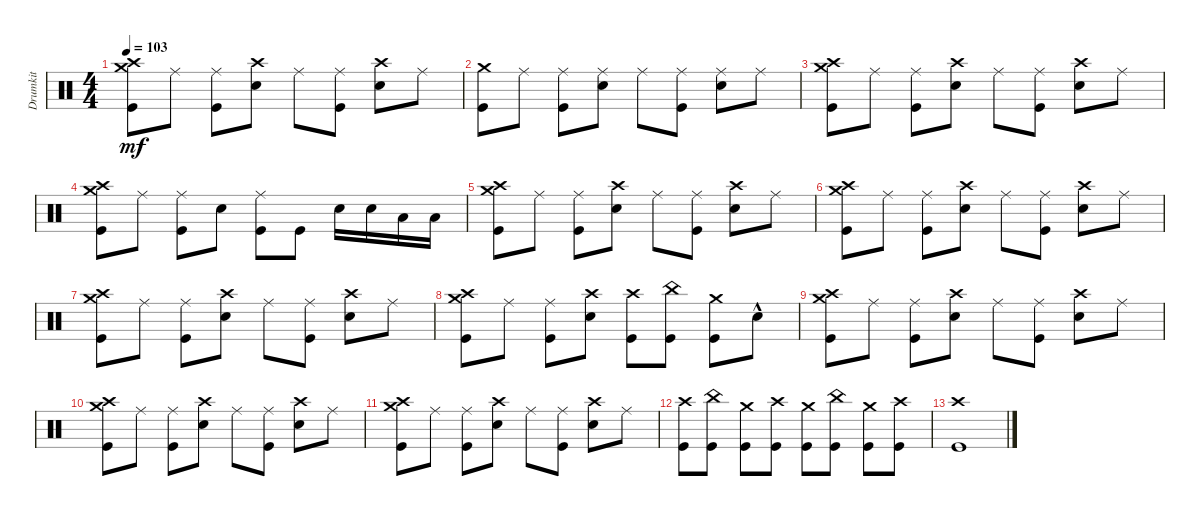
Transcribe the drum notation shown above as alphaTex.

\track ("Drumkit" "Drumkit") {instrument percussion}
\staff {score}
\articulation defaults
\ts (4 4)
\tempo 103
\clef neutral
\ks c
("Crash high (hit)" "Crash medium (hit)" "Kick (hit)").8{dy mf} "Ride (middle)".8 ("Ride (middle)" "Kick (hit)").8 ("Snare (hit) 2" "Crash high (hit)").8 "Ride (middle)".8 ("Ride (middle)" "Kick (hit)").8 ("Snare (hit) 2" "Crash high (hit)").8 "Ride (middle)".8 |
("Crash medium (hit)" "Kick (hit)").8 "Ride (middle)".8 ("Ride (middle)" "Kick (hit)").8 ("Snare (hit) 2" "Ride (middle)").8 "Ride (middle)".8 ("Ride (middle)" "Kick (hit)").8 ("Snare (hit) 2" "Ride (middle)").8 "Ride (middle)".8 |
("Crash high (hit)" "Crash medium (hit)" "Kick (hit)").8 "Ride (middle)".8 ("Ride (middle)" "Kick (hit)").8 ("Snare (hit) 2" "Crash high (hit)").8 "Ride (middle)".8 ("Ride (middle)" "Kick (hit)").8 ("Snare (hit) 2" "Crash high (hit)").8 "Ride (middle)".8 |
("Crash high (hit)" "Crash medium (hit)" "Kick (hit)").8 "Ride (middle)".8 ("Ride (middle)" "Kick (hit)").8 "Snare (hit) 2".8 ("Ride (middle)" "Kick (hit)").8 "Kick (hit)".8 "Snare (hit) 2".16 "Snare (hit) 2".16 "Low Tom (hit)".16 "Low Tom (hit)".16 |
("Crash high (hit)" "Crash medium (hit)" "Kick (hit)").8 "Ride (middle)".8 ("Ride (middle)" "Kick (hit)").8 ("Snare (hit) 2" "Crash high (hit)").8 "Ride (middle)".8 ("Ride (middle)" "Kick (hit)").8 ("Snare (hit) 2" "Crash high (hit)").8 "Ride (middle)".8 |
("Crash high (hit)" "Crash medium (hit)" "Kick (hit)").8 "Ride (middle)".8 ("Ride (middle)" "Kick (hit)").8 ("Snare (hit) 2" "Crash high (hit)").8 "Ride (middle)".8 ("Ride (middle)" "Kick (hit)").8 ("Snare (hit) 2" "Crash high (hit)").8 "Ride (middle)".8 |
("Crash high (hit)" "Crash medium (hit)" "Kick (hit)").8 "Ride (middle)".8 ("Ride (middle)" "Kick (hit)").8 ("Snare (hit) 2" "Crash high (hit)").8 "Ride (middle)".8 ("Ride (middle)" "Kick (hit)").8 ("Snare (hit) 2" "Crash high (hit)").8 "Ride (middle)".8 |
("Crash high (hit)" "Crash medium (hit)" "Kick (hit)").8 "Ride (middle)".8 ("Ride (middle)" "Kick (hit)").8 ("Snare (hit) 2" "Crash high (hit)").8 ("Crash high (hit)" "Kick (hit)").8 ("Kick (hit)" "China (hit)").8 ("Crash medium (hit)" "Kick (hit)").8 "Snare (hit) 2"{hac}.8 |
("Crash high (hit)" "Crash medium (hit)" "Kick (hit)").8 "Ride (middle)".8 ("Ride (middle)" "Kick (hit)").8 ("Snare (hit) 2" "Crash high (hit)").8 "Ride (middle)".8 ("Ride (middle)" "Kick (hit)").8 ("Snare (hit) 2" "Crash high (hit)").8 "Ride (middle)".8 |
("Crash high (hit)" "Crash medium (hit)" "Kick (hit)").8 "Ride (middle)".8 ("Ride (middle)" "Kick (hit)").8 ("Snare (hit) 2" "Crash high (hit)").8 "Ride (middle)".8 ("Ride (middle)" "Kick (hit)").8 ("Snare (hit) 2" "Crash high (hit)").8 "Ride (middle)".8 |
("Crash high (hit)" "Crash medium (hit)" "Kick (hit)").8 "Ride (middle)".8 ("Ride (middle)" "Kick (hit)").8 ("Snare (hit) 2" "Crash high (hit)").8 "Ride (middle)".8 ("Ride (middle)" "Kick (hit)").8 ("Snare (hit) 2" "Crash high (hit)").8 "Ride (middle)".8 |
("Kick (hit)" "Crash high (hit)").8 ("Kick (hit)" "China (hit)").8 ("Kick (hit)" "Crash medium (hit)").8 ("Kick (hit)" "Crash high (hit)").8 ("Kick (hit)" "Crash medium (hit)").8 ("Kick (hit)" "China (hit)").8 ("Kick (hit)" "Crash medium (hit)").8 ("Kick (hit)" "Crash high (hit)").8 |
("Crash high (hit)" "Kick (hit)").1
